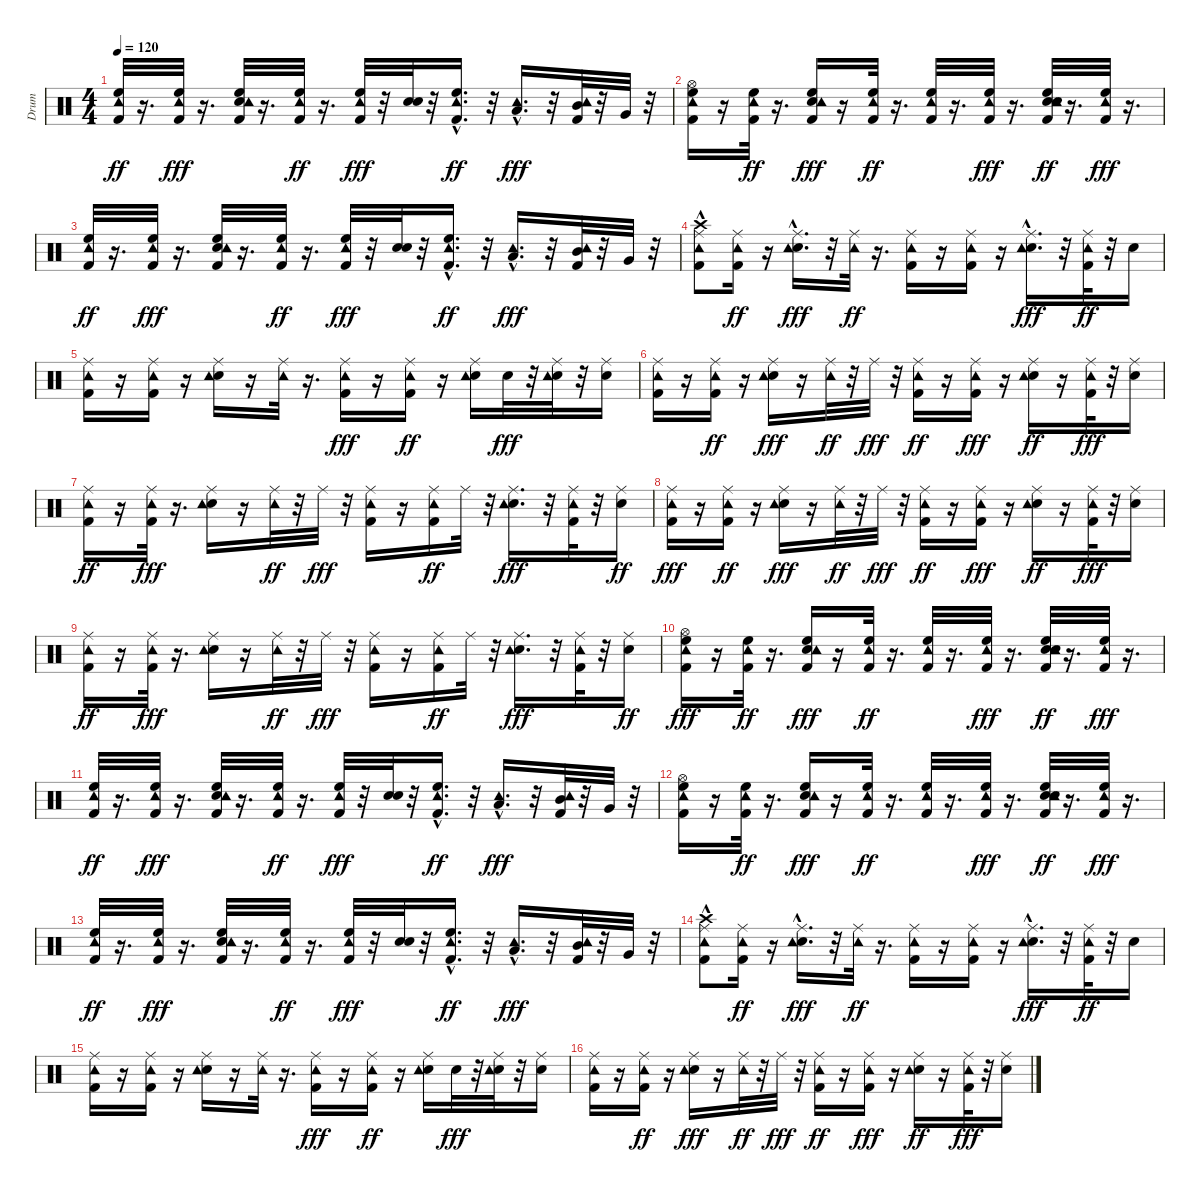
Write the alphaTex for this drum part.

\track ("Drum" "Drum") {instrument percussion}
\staff {score}
\articulation defaults
\ts (4 4)
\tempo 120
\clef neutral
\ks c
("Kick (hit) 2" "High Floor Tom (hit)" "Tambourine (hit)").32{dy ff} r.16{d} ("Kick (hit) 2" "High Floor Tom (hit)" "Tambourine (hit)").32{dy fff} r.16{d} ("Kick (hit) 2" "Electric Snare (hit)" "High Floor Tom (hit)" "Tambourine (hit)").32 r.16{d} ("Kick (hit) 2" "High Floor Tom (hit)" "Tambourine (hit)").32{dy ff} r.16{d} ("Kick (hit) 2" "High Floor Tom (hit)" "Tambourine (hit)").32{dy fff} r.32 ("Electric Snare (hit)" "Electric Snare (hit)").32 r.32 ("Kick (hit) 2" "High Floor Tom (hit)"{hac} "Tambourine (hit)").16{d dy ff} r.32 ("Low Tom (hit)"{hac} "Tambourine (hit)").16{d dy fff} r.32 ("Kick (hit) 2" "Mid Tom (hit)" "Tambourine (hit)").32 r.32 "Very Low Tom (hit)".32 r.32 |
("Kick (hit) 2" "Hi-Hat (open)" "High Floor Tom (hit)" "Tambourine (hit)").16 r.16 ("Kick (hit) 2" "High Floor Tom (hit)" "Tambourine (hit)").32{dy ff} r.16{d} ("Kick (hit) 2" "Electric Snare (hit)" "High Floor Tom (hit)" "Tambourine (hit)").16{dy fff} r.16 ("Kick (hit) 2" "High Floor Tom (hit)" "Tambourine (hit)").32{dy ff} r.16{d} ("Kick (hit) 2" "High Floor Tom (hit)" "Tambourine (hit)").32 r.16{d} ("Kick (hit) 2" "High Floor Tom (hit)" "Tambourine (hit)").32{dy fff} r.16{d} ("Kick (hit) 2" "Snare (hit) 2" "Electric Snare (hit)" "High Floor Tom (hit)" "Tambourine (hit)").32{dy ff} r.16{d} ("Kick (hit) 2" "High Floor Tom (hit)" "Tambourine (hit)").32{dy fff} r.16{d} |
("Kick (hit) 2" "High Floor Tom (hit)" "Tambourine (hit)").32{dy ff} r.16{d} ("Kick (hit) 2" "High Floor Tom (hit)" "Tambourine (hit)").32{dy fff} r.16{d} ("Kick (hit) 2" "Electric Snare (hit)" "High Floor Tom (hit)" "Tambourine (hit)").32 r.16{d} ("Kick (hit) 2" "High Floor Tom (hit)" "Tambourine (hit)").32{dy ff} r.16{d} ("Kick (hit) 2" "High Floor Tom (hit)" "Tambourine (hit)").32{dy fff} r.32 ("Electric Snare (hit)" "Electric Snare (hit)").32 r.32 ("Kick (hit) 2" "High Floor Tom (hit)"{hac} "Tambourine (hit)").16{d dy ff} r.32 ("Low Tom (hit)"{hac} "Tambourine (hit)").16{d dy fff} r.32 ("Kick (hit) 2" "Mid Tom (hit)" "Tambourine (hit)").32 r.32 "Very Low Tom (hit)".32 r.32 |
("Kick (hit) 2" "Crash high (hit)"{hac} "Ride (middle)" "Tambourine (hit)").8 ("Kick (hit) 2" "Ride (middle)" "Tambourine (hit)").16{dy ff} r.16 ("Electric Snare (hit)"{hac} "Ride (middle)" "Tambourine (hit)").16{d dy fff} r.32 ("Ride (middle)" "Tambourine (hit)").32{dy ff} r.16{d} ("Kick (hit) 2" "Ride (middle)" "Tambourine (hit)").16 r.16 ("Kick (hit) 2" "Ride (middle)" "Tambourine (hit)").16 r.16 ("Electric Snare (hit)"{hac} "Ride (middle)" "Tambourine (hit)").16{d dy fff} r.32 ("Kick (hit) 2" "Ride (middle)" "Tambourine (hit)").32{dy ff} r.32 "Electric Snare (hit)".16 |
("Kick (hit) 2" "Ride (middle)" "Tambourine (hit)").16 r.16 ("Kick (hit) 2" "Ride (middle)" "Tambourine (hit)").16 r.16 ("Electric Snare (hit)" "Ride (middle)" "Tambourine (hit)").16 r.16 ("Ride (middle)" "Tambourine (hit)").32 r.16{d} ("Kick (hit) 2" "Ride (middle)" "Tambourine (hit)").16{dy fff} r.16 ("Kick (hit) 2" "Ride (middle)" "Tambourine (hit)").16{dy ff} r.16 ("Electric Snare (hit)" "Ride (middle)" "Tambourine (hit)").16 "Electric Snare (hit)".32{dy fff} r.32 ("Electric Snare (hit)" "Ride (middle)" "Tambourine (hit)").32 r.32 ("Electric Snare (hit)" "Ride (middle)").16 |
("Kick (hit) 2" "Ride (middle)" "Tambourine (hit)").16 r.16 ("Kick (hit) 2" "Ride (middle)" "Tambourine (hit)").16{dy ff} r.16 ("Electric Snare (hit)" "Ride (middle)" "Tambourine (hit)").16{dy fff} r.16 ("Ride (middle)" "Tambourine (hit)").32{dy ff} r.32 "Ride (middle)".32{dy fff} r.32 ("Kick (hit) 2" "Ride (middle)" "Tambourine (hit)").16{dy ff} r.16 ("Kick (hit) 2" "Ride (middle)" "Tambourine (hit)").16{dy fff} r.16 ("Electric Snare (hit)" "Ride (middle)" "Tambourine (hit)").16{dy ff} r.16 ("Kick (hit) 2" "Ride (middle)" "Tambourine (hit)").32{dy fff} r.32 ("Electric Snare (hit)" "Ride (middle)").16 |
("Kick (hit) 2" "Ride (middle)" "Tambourine (hit)").16{dy ff} r.16 ("Kick (hit) 2" "Ride (middle)" "Tambourine (hit)").32{dy fff} r.16{d} ("Electric Snare (hit)" "Ride (middle)" "Tambourine (hit)").16 r.16 ("Ride (middle)" "Tambourine (hit)").32{dy ff} r.32 "Ride (middle)".32{dy fff} r.32 ("Kick (hit) 2" "Ride (middle)" "Tambourine (hit)").16 r.16 ("Kick (hit) 2" "Ride (middle)" "Tambourine (hit)").16{dy ff} "Ride (middle)".32 r.32 ("Electric Snare (hit)" "Ride (middle)" "Tambourine (hit)").16{d dy fff} r.32 ("Kick (hit) 2" "Ride (middle)" "Tambourine (hit)").32 r.32 ("Electric Snare (hit)" "Ride (middle)").16{dy ff} |
("Kick (hit) 2" "Ride (middle)" "Tambourine (hit)").16{dy fff} r.16 ("Kick (hit) 2" "Ride (middle)" "Tambourine (hit)").16{dy ff} r.16 ("Electric Snare (hit)" "Ride (middle)" "Tambourine (hit)").16{dy fff} r.16 ("Ride (middle)" "Tambourine (hit)").32{dy ff} r.32 "Ride (middle)".32{dy fff} r.32 ("Kick (hit) 2" "Ride (middle)" "Tambourine (hit)").16{dy ff} r.16 ("Kick (hit) 2" "Ride (middle)" "Tambourine (hit)").16{dy fff} r.16 ("Electric Snare (hit)" "Ride (middle)" "Tambourine (hit)").16{dy ff} r.16 ("Kick (hit) 2" "Ride (middle)" "Tambourine (hit)").32{dy fff} r.32 ("Electric Snare (hit)" "Ride (middle)").16 |
("Kick (hit) 2" "Ride (middle)" "Tambourine (hit)").16{dy ff} r.16 ("Kick (hit) 2" "Ride (middle)" "Tambourine (hit)").32{dy fff} r.16{d} ("Electric Snare (hit)" "Ride (middle)" "Tambourine (hit)").16 r.16 ("Ride (middle)" "Tambourine (hit)").32{dy ff} r.32 "Ride (middle)".32{dy fff} r.32 ("Kick (hit) 2" "Ride (middle)" "Tambourine (hit)").16 r.16 ("Kick (hit) 2" "Ride (middle)" "Tambourine (hit)").16{dy ff} "Ride (middle)".32 r.32 ("Electric Snare (hit)" "Ride (middle)" "Tambourine (hit)").16{d dy fff} r.32 ("Kick (hit) 2" "Ride (middle)" "Tambourine (hit)").32 r.32 ("Electric Snare (hit)" "Ride (middle)").16{dy ff} |
("Kick (hit) 2" "Hi-Hat (open)" "High Floor Tom (hit)" "Tambourine (hit)").16{dy fff} r.16 ("Kick (hit) 2" "High Floor Tom (hit)" "Tambourine (hit)").32{dy ff} r.16{d} ("Kick (hit) 2" "Electric Snare (hit)" "High Floor Tom (hit)" "Tambourine (hit)").16{dy fff} r.16 ("Kick (hit) 2" "High Floor Tom (hit)" "Tambourine (hit)").32{dy ff} r.16{d} ("Kick (hit) 2" "High Floor Tom (hit)" "Tambourine (hit)").32 r.16{d} ("Kick (hit) 2" "High Floor Tom (hit)" "Tambourine (hit)").32{dy fff} r.16{d} ("Kick (hit) 2" "Snare (hit) 2" "Electric Snare (hit)" "High Floor Tom (hit)" "Tambourine (hit)").32{dy ff} r.16{d} ("Kick (hit) 2" "High Floor Tom (hit)" "Tambourine (hit)").32{dy fff} r.16{d} |
("Kick (hit) 2" "High Floor Tom (hit)" "Tambourine (hit)").32{dy ff} r.16{d} ("Kick (hit) 2" "High Floor Tom (hit)" "Tambourine (hit)").32{dy fff} r.16{d} ("Kick (hit) 2" "Electric Snare (hit)" "High Floor Tom (hit)" "Tambourine (hit)").32 r.16{d} ("Kick (hit) 2" "High Floor Tom (hit)" "Tambourine (hit)").32{dy ff} r.16{d} ("Kick (hit) 2" "High Floor Tom (hit)" "Tambourine (hit)").32{dy fff} r.32 ("Electric Snare (hit)" "Electric Snare (hit)").32 r.32 ("Kick (hit) 2" "High Floor Tom (hit)"{hac} "Tambourine (hit)").16{d dy ff} r.32 ("Low Tom (hit)"{hac} "Tambourine (hit)").16{d dy fff} r.32 ("Kick (hit) 2" "Mid Tom (hit)" "Tambourine (hit)").32 r.32 "Very Low Tom (hit)".32 r.32 |
("Kick (hit) 2" "Hi-Hat (open)" "High Floor Tom (hit)" "Tambourine (hit)").16 r.16 ("Kick (hit) 2" "High Floor Tom (hit)" "Tambourine (hit)").32{dy ff} r.16{d} ("Kick (hit) 2" "Electric Snare (hit)" "High Floor Tom (hit)" "Tambourine (hit)").16{dy fff} r.16 ("Kick (hit) 2" "High Floor Tom (hit)" "Tambourine (hit)").32{dy ff} r.16{d} ("Kick (hit) 2" "High Floor Tom (hit)" "Tambourine (hit)").32 r.16{d} ("Kick (hit) 2" "High Floor Tom (hit)" "Tambourine (hit)").32{dy fff} r.16{d} ("Kick (hit) 2" "Snare (hit) 2" "Electric Snare (hit)" "High Floor Tom (hit)" "Tambourine (hit)").32{dy ff} r.16{d} ("Kick (hit) 2" "High Floor Tom (hit)" "Tambourine (hit)").32{dy fff} r.16{d} |
("Kick (hit) 2" "High Floor Tom (hit)" "Tambourine (hit)").32{dy ff} r.16{d} ("Kick (hit) 2" "High Floor Tom (hit)" "Tambourine (hit)").32{dy fff} r.16{d} ("Kick (hit) 2" "Electric Snare (hit)" "High Floor Tom (hit)" "Tambourine (hit)").32 r.16{d} ("Kick (hit) 2" "High Floor Tom (hit)" "Tambourine (hit)").32{dy ff} r.16{d} ("Kick (hit) 2" "High Floor Tom (hit)" "Tambourine (hit)").32{dy fff} r.32 ("Electric Snare (hit)" "Electric Snare (hit)").32 r.32 ("Kick (hit) 2" "High Floor Tom (hit)"{hac} "Tambourine (hit)").16{d dy ff} r.32 ("Low Tom (hit)"{hac} "Tambourine (hit)").16{d dy fff} r.32 ("Kick (hit) 2" "Mid Tom (hit)" "Tambourine (hit)").32 r.32 "Very Low Tom (hit)".32 r.32 |
("Kick (hit) 2" "Crash high (hit)"{hac} "Ride (middle)" "Tambourine (hit)").8 ("Kick (hit) 2" "Ride (middle)" "Tambourine (hit)").16{dy ff} r.16 ("Electric Snare (hit)"{hac} "Ride (middle)" "Tambourine (hit)").16{d dy fff} r.32 ("Ride (middle)" "Tambourine (hit)").32{dy ff} r.16{d} ("Kick (hit) 2" "Ride (middle)" "Tambourine (hit)").16 r.16 ("Kick (hit) 2" "Ride (middle)" "Tambourine (hit)").16 r.16 ("Electric Snare (hit)"{hac} "Ride (middle)" "Tambourine (hit)").16{d dy fff} r.32 ("Kick (hit) 2" "Ride (middle)" "Tambourine (hit)").32{dy ff} r.32 "Electric Snare (hit)".16 |
("Kick (hit) 2" "Ride (middle)" "Tambourine (hit)").16 r.16 ("Kick (hit) 2" "Ride (middle)" "Tambourine (hit)").16 r.16 ("Electric Snare (hit)" "Ride (middle)" "Tambourine (hit)").16 r.16 ("Ride (middle)" "Tambourine (hit)").32 r.16{d} ("Kick (hit) 2" "Ride (middle)" "Tambourine (hit)").16{dy fff} r.16 ("Kick (hit) 2" "Ride (middle)" "Tambourine (hit)").16{dy ff} r.16 ("Electric Snare (hit)" "Ride (middle)" "Tambourine (hit)").16 "Electric Snare (hit)".32{dy fff} r.32 ("Electric Snare (hit)" "Ride (middle)" "Tambourine (hit)").32 r.32 ("Electric Snare (hit)" "Ride (middle)").16 |
("Kick (hit) 2" "Ride (middle)" "Tambourine (hit)").16 r.16 ("Kick (hit) 2" "Ride (middle)" "Tambourine (hit)").16{dy ff} r.16 ("Electric Snare (hit)" "Ride (middle)" "Tambourine (hit)").16{dy fff} r.16 ("Ride (middle)" "Tambourine (hit)").32{dy ff} r.32 "Ride (middle)".32{dy fff} r.32 ("Kick (hit) 2" "Ride (middle)" "Tambourine (hit)").16{dy ff} r.16 ("Kick (hit) 2" "Ride (middle)" "Tambourine (hit)").16{dy fff} r.16 ("Electric Snare (hit)" "Ride (middle)" "Tambourine (hit)").16{dy ff} r.16 ("Kick (hit) 2" "Ride (middle)" "Tambourine (hit)").32{dy fff} r.32 ("Electric Snare (hit)" "Ride (middle)").16
